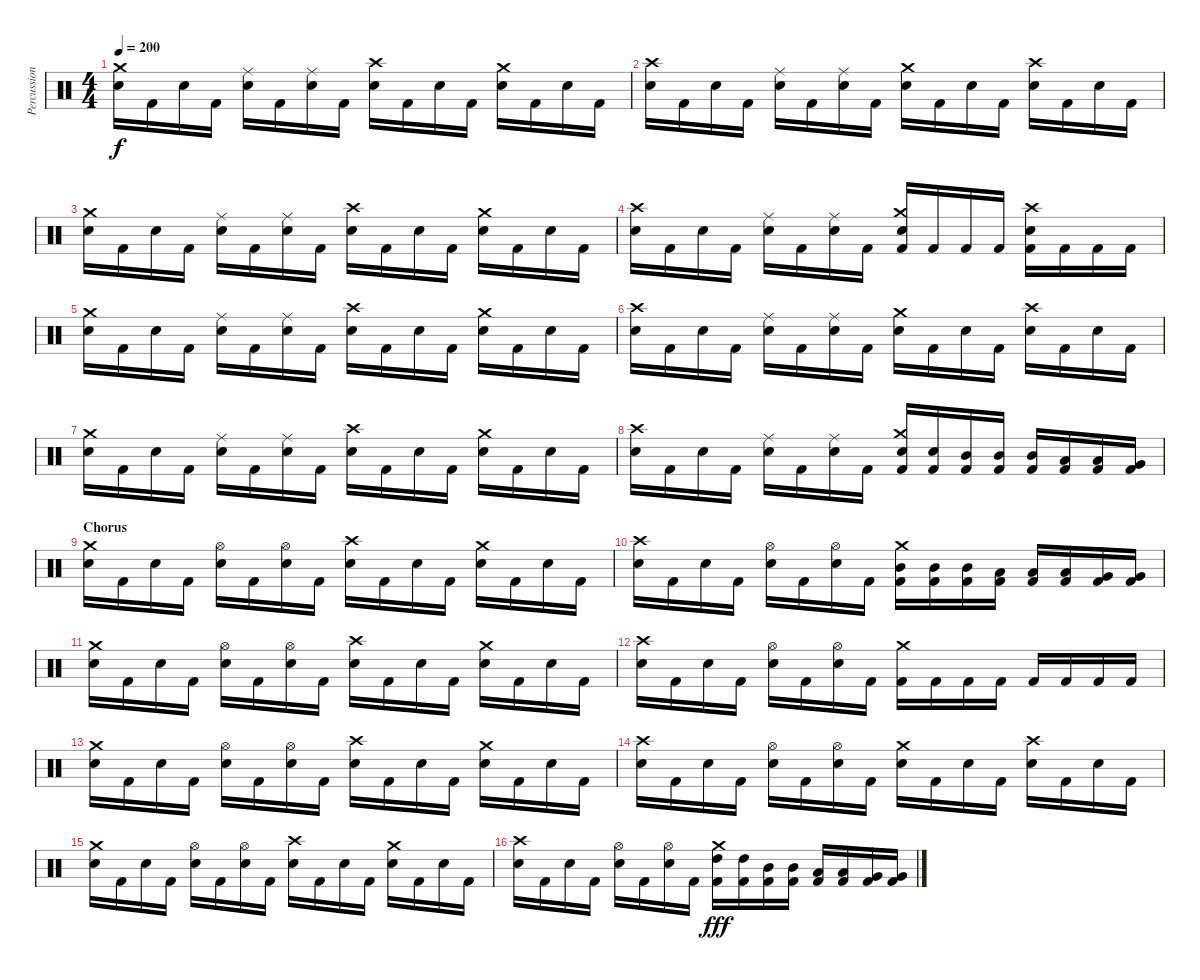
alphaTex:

\track ("Percussion" "Percussion") {instrument percussion}
\staff {score}
\articulation defaults
\ts (4 4)
\tempo 200
\clef neutral
\ks c
("Snare (hit) 2" "Crash medium (hit)").16{dy f} "Kick (hit) 2".16 "Snare (hit) 2".16 "Kick (hit) 2".16 ("Snare (hit) 2" "Ride (middle)").16 "Kick (hit) 2".16 ("Snare (hit) 2" "Ride (middle)").16 "Kick (hit) 2".16 ("Snare (hit) 2" "Crash high (hit)").16 "Kick (hit) 2".16 "Snare (hit) 2".16 "Kick (hit) 2".16 ("Snare (hit) 2" "Crash medium (hit)").16 "Kick (hit) 2".16 "Snare (hit) 2".16 "Kick (hit) 2".16 |
("Snare (hit) 2" "Crash high (hit)").16 "Kick (hit) 2".16 "Snare (hit) 2".16 "Kick (hit) 2".16 ("Snare (hit) 2" "Ride (middle)").16 "Kick (hit) 2".16 ("Snare (hit) 2" "Ride (middle)").16 "Kick (hit) 2".16 ("Snare (hit) 2" "Crash medium (hit)").16 "Kick (hit) 2".16 "Snare (hit) 2".16 "Kick (hit) 2".16 ("Snare (hit) 2" "Crash high (hit)").16 "Kick (hit) 2".16 "Snare (hit) 2".16 "Kick (hit) 2".16 |
("Snare (hit) 2" "Crash medium (hit)").16 "Kick (hit) 2".16 "Snare (hit) 2".16 "Kick (hit) 2".16 ("Snare (hit) 2" "Ride (middle)").16 "Kick (hit) 2".16 ("Snare (hit) 2" "Ride (middle)").16 "Kick (hit) 2".16 ("Snare (hit) 2" "Crash high (hit)").16 "Kick (hit) 2".16 "Snare (hit) 2".16 "Kick (hit) 2".16 ("Snare (hit) 2" "Crash medium (hit)").16 "Kick (hit) 2".16 "Snare (hit) 2".16 "Kick (hit) 2".16 |
("Snare (hit) 2" "Crash high (hit)").16 "Kick (hit) 2".16 "Snare (hit) 2".16 "Kick (hit) 2".16 ("Snare (hit) 2" "Ride (middle)").16 "Kick (hit) 2".16 ("Snare (hit) 2" "Ride (middle)").16 "Kick (hit) 2".16 ("Kick (hit) 2" "Snare (hit) 2" "Crash medium (hit)").16 "Kick (hit) 2".16 "Kick (hit) 2".16 "Kick (hit) 2".16 ("Kick (hit) 2" "Snare (hit) 2" "Crash high (hit)").16 "Kick (hit) 2".16 "Kick (hit) 2".16 "Kick (hit) 2".16 |
("Snare (hit) 2" "Crash medium (hit)").16 "Kick (hit) 2".16 "Snare (hit) 2".16 "Kick (hit) 2".16 ("Snare (hit) 2" "Ride (middle)").16 "Kick (hit) 2".16 ("Snare (hit) 2" "Ride (middle)").16 "Kick (hit) 2".16 ("Snare (hit) 2" "Crash high (hit)").16 "Kick (hit) 2".16 "Snare (hit) 2".16 "Kick (hit) 2".16 ("Snare (hit) 2" "Crash medium (hit)").16 "Kick (hit) 2".16 "Snare (hit) 2".16 "Kick (hit) 2".16 |
("Snare (hit) 2" "Crash high (hit)").16 "Kick (hit) 2".16 "Snare (hit) 2".16 "Kick (hit) 2".16 ("Snare (hit) 2" "Ride (middle)").16 "Kick (hit) 2".16 ("Snare (hit) 2" "Ride (middle)").16 "Kick (hit) 2".16 ("Snare (hit) 2" "Crash medium (hit)").16 "Kick (hit) 2".16 "Snare (hit) 2".16 "Kick (hit) 2".16 ("Snare (hit) 2" "Crash high (hit)").16 "Kick (hit) 2".16 "Snare (hit) 2".16 "Kick (hit) 2".16 |
("Snare (hit) 2" "Crash medium (hit)").16 "Kick (hit) 2".16 "Snare (hit) 2".16 "Kick (hit) 2".16 ("Snare (hit) 2" "Ride (middle)").16 "Kick (hit) 2".16 ("Snare (hit) 2" "Ride (middle)").16 "Kick (hit) 2".16 ("Snare (hit) 2" "Crash high (hit)").16 "Kick (hit) 2".16 "Snare (hit) 2".16 "Kick (hit) 2".16 ("Snare (hit) 2" "Crash medium (hit)").16 "Kick (hit) 2".16 "Snare (hit) 2".16 "Kick (hit) 2".16 |
("Snare (hit) 2" "Crash high (hit)").16 "Kick (hit) 2".16 "Snare (hit) 2".16 "Kick (hit) 2".16 ("Snare (hit) 2" "Ride (middle)").16 "Kick (hit) 2".16 ("Snare (hit) 2" "Ride (middle)").16 "Kick (hit) 2".16 ("Kick (hit) 2" "Snare (hit) 2" "Crash medium (hit)").16 ("Kick (hit) 2" "Snare (hit) 2").16 ("Kick (hit) 2" "Mid Tom (hit)").16 ("Kick (hit) 2" "Mid Tom (hit)").16 ("Kick (hit) 2" "Mid Tom (hit)").16 ("Kick (hit) 2" "Low Tom (hit)").16 ("Kick (hit) 2" "Low Tom (hit)").16 ("Kick (hit) 2" "Very Low Tom (hit)").16 |
\section ("" "Chorus")
("Snare (hit) 2" "Crash medium (hit)").16 "Kick (hit) 2".16 "Snare (hit) 2".16 "Kick (hit) 2".16 ("Snare (hit) 2" "Hi-Hat (open)").16 "Kick (hit) 2".16 ("Snare (hit) 2" "Hi-Hat (open)").16 "Kick (hit) 2".16 ("Snare (hit) 2" "Crash high (hit)").16 "Kick (hit) 2".16 "Snare (hit) 2".16 "Kick (hit) 2".16 ("Snare (hit) 2" "Crash medium (hit)").16 "Kick (hit) 2".16 "Snare (hit) 2".16 "Kick (hit) 2".16 |
("Snare (hit) 2" "Crash high (hit)").16 "Kick (hit) 2".16 "Snare (hit) 2".16 "Kick (hit) 2".16 ("Snare (hit) 2" "Hi-Hat (open)").16 "Kick (hit) 2".16 ("Snare (hit) 2" "Hi-Hat (open)").16 "Kick (hit) 2".16 ("Kick (hit) 2" "Mid Tom (hit)" "Crash medium (hit)").16 ("Kick (hit) 2" "Mid Tom (hit)").16 ("Kick (hit) 2" "Mid Tom (hit)").16 ("Kick (hit) 2" "Low Tom (hit)").16 ("Kick (hit) 2" "Low Tom (hit)").16 ("Kick (hit) 2" "Low Tom (hit)").16 ("Kick (hit) 2" "Very Low Tom (hit)").16 ("Kick (hit) 2" "Very Low Tom (hit)").16 |
("Snare (hit) 2" "Crash medium (hit)").16 "Kick (hit) 2".16 "Snare (hit) 2".16 "Kick (hit) 2".16 ("Snare (hit) 2" "Hi-Hat (open)").16 "Kick (hit) 2".16 ("Snare (hit) 2" "Hi-Hat (open)").16 "Kick (hit) 2".16 ("Snare (hit) 2" "Crash high (hit)").16 "Kick (hit) 2".16 "Snare (hit) 2".16 "Kick (hit) 2".16 ("Snare (hit) 2" "Crash medium (hit)").16 "Kick (hit) 2".16 "Snare (hit) 2".16 "Kick (hit) 2".16 |
("Snare (hit) 2" "Crash high (hit)").16 "Kick (hit) 2".16 "Snare (hit) 2".16 "Kick (hit) 2".16 ("Snare (hit) 2" "Hi-Hat (open)").16 "Kick (hit) 2".16 ("Snare (hit) 2" "Hi-Hat (open)").16 "Kick (hit) 2".16 ("Kick (hit) 2" "Crash medium (hit)").16 "Kick (hit) 2".16 "Kick (hit) 2".16 "Kick (hit) 2".16 "Kick (hit) 2".16 "Kick (hit) 2".16 "Kick (hit) 2".16 "Kick (hit) 2".16 |
("Snare (hit) 2" "Crash medium (hit)").16 "Kick (hit) 2".16 "Snare (hit) 2".16 "Kick (hit) 2".16 ("Snare (hit) 2" "Hi-Hat (open)").16 "Kick (hit) 2".16 ("Snare (hit) 2" "Hi-Hat (open)").16 "Kick (hit) 2".16 ("Snare (hit) 2" "Crash high (hit)").16 "Kick (hit) 2".16 "Snare (hit) 2".16 "Kick (hit) 2".16 ("Snare (hit) 2" "Crash medium (hit)").16 "Kick (hit) 2".16 "Snare (hit) 2".16 "Kick (hit) 2".16 |
("Snare (hit) 2" "Crash high (hit)").16 "Kick (hit) 2".16 "Snare (hit) 2".16 "Kick (hit) 2".16 ("Snare (hit) 2" "Hi-Hat (open)").16 "Kick (hit) 2".16 ("Snare (hit) 2" "Hi-Hat (open)").16 "Kick (hit) 2".16 ("Snare (hit) 2" "Crash medium (hit)").16 "Kick (hit) 2".16 "Snare (hit) 2".16 "Kick (hit) 2".16 ("Snare (hit) 2" "Crash high (hit)").16 "Kick (hit) 2".16 "Snare (hit) 2".16 "Kick (hit) 2".16 |
("Snare (hit) 2" "Crash medium (hit)").16 "Kick (hit) 2".16 "Snare (hit) 2".16 "Kick (hit) 2".16 ("Snare (hit) 2" "Hi-Hat (open)").16 "Kick (hit) 2".16 ("Snare (hit) 2" "Hi-Hat (open)").16 "Kick (hit) 2".16 ("Snare (hit) 2" "Crash high (hit)").16 "Kick (hit) 2".16 "Snare (hit) 2".16 "Kick (hit) 2".16 ("Snare (hit) 2" "Crash medium (hit)").16 "Kick (hit) 2".16 "Snare (hit) 2".16 "Kick (hit) 2".16 |
("Snare (hit) 2" "Crash high (hit)").16 "Kick (hit) 2".16 "Snare (hit) 2".16 "Kick (hit) 2".16 ("Snare (hit) 2" "Hi-Hat (open)").16 "Kick (hit) 2".16 ("Snare (hit) 2" "Hi-Hat (open)").16 "Kick (hit) 2".16 ("Kick (hit) 2" "High Tom (hit)" "Crash medium (hit)").16{dy fff} ("Kick (hit) 2" "High Tom (hit)").16 ("Kick (hit) 2" "Mid Tom (hit)").16 ("Kick (hit) 2" "Mid Tom (hit)").16 ("Kick (hit) 2" "Low Tom (hit)").16 ("Kick (hit) 2" "Low Tom (hit)").16 ("Kick (hit) 2" "Very Low Tom (hit)").16 ("Kick (hit) 2" "Very Low Tom (hit)").16
